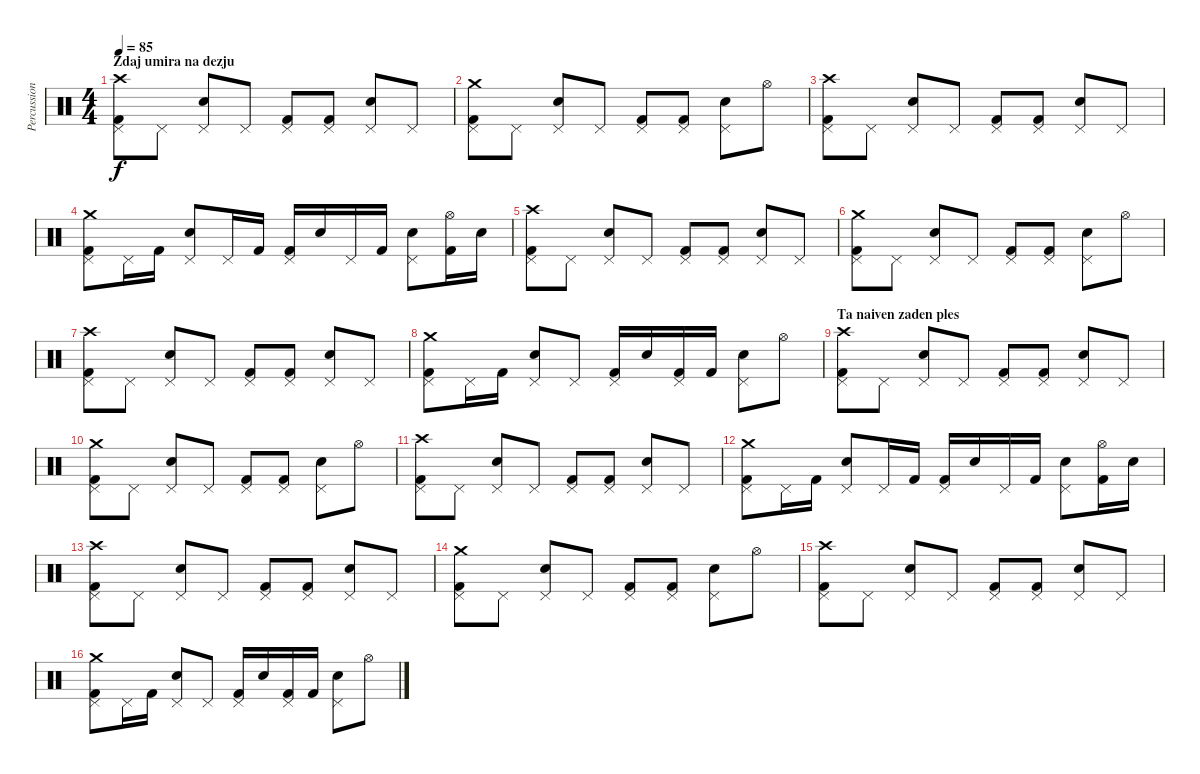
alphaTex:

\track ("Percussion" "Percussion") {instrument percussion}
\staff {score}
\articulation defaults
\ts (4 4)
\section ("" "Zdaj umira na dezju")
\tempo 85
\clef neutral
\ks c
("Crash high (hit)" "Pedal Hi-Hat (hit)" "Kick (hit) 2").8{dy f} "Pedal Hi-Hat (hit)".8 ("Pedal Hi-Hat (hit)" "Snare (hit) 2").8 "Pedal Hi-Hat (hit)".8 ("Pedal Hi-Hat (hit)" "Kick (hit) 2").8 ("Pedal Hi-Hat (hit)" "Kick (hit) 2").8 ("Pedal Hi-Hat (hit)" "Snare (hit) 2").8 "Pedal Hi-Hat (hit)".8 |
("Crash medium (hit)" "Pedal Hi-Hat (hit)" "Kick (hit) 2").8 "Pedal Hi-Hat (hit)".8 ("Pedal Hi-Hat (hit)" "Snare (hit) 2").8 "Pedal Hi-Hat (hit)".8 ("Pedal Hi-Hat (hit)" "Kick (hit) 2").8 ("Pedal Hi-Hat (hit)" "Kick (hit) 2").8 ("Pedal Hi-Hat (hit)" "Snare (hit) 2").8 "Hi-Hat (open)".8 |
("Crash high (hit)" "Pedal Hi-Hat (hit)" "Kick (hit) 2").8 "Pedal Hi-Hat (hit)".8 ("Pedal Hi-Hat (hit)" "Snare (hit) 2").8 "Pedal Hi-Hat (hit)".8 ("Pedal Hi-Hat (hit)" "Kick (hit) 2").8 ("Pedal Hi-Hat (hit)" "Kick (hit) 2").8 ("Pedal Hi-Hat (hit)" "Snare (hit) 2").8 "Pedal Hi-Hat (hit)".8 |
("Crash medium (hit)" "Pedal Hi-Hat (hit)" "Kick (hit) 2").8 "Pedal Hi-Hat (hit)".16 "Kick (hit) 2".16 ("Pedal Hi-Hat (hit)" "Snare (hit) 2").8 "Pedal Hi-Hat (hit)".16 "Kick (hit) 2".16 ("Pedal Hi-Hat (hit)" "Kick (hit) 2").16 "Snare (hit) 2".16 "Pedal Hi-Hat (hit)".16 "Kick (hit) 2".16 ("Pedal Hi-Hat (hit)" "Snare (hit) 2").8 ("Hi-Hat (open)" "Kick (hit) 2").16 "Snare (hit) 2".16 |
("Crash high (hit)" "Pedal Hi-Hat (hit)" "Kick (hit) 2").8 "Pedal Hi-Hat (hit)".8 ("Pedal Hi-Hat (hit)" "Snare (hit) 2").8 "Pedal Hi-Hat (hit)".8 ("Pedal Hi-Hat (hit)" "Kick (hit) 2").8 ("Pedal Hi-Hat (hit)" "Kick (hit) 2").8 ("Pedal Hi-Hat (hit)" "Snare (hit) 2").8 "Pedal Hi-Hat (hit)".8 |
("Crash medium (hit)" "Pedal Hi-Hat (hit)" "Kick (hit) 2").8 "Pedal Hi-Hat (hit)".8 ("Pedal Hi-Hat (hit)" "Snare (hit) 2").8 "Pedal Hi-Hat (hit)".8 ("Pedal Hi-Hat (hit)" "Kick (hit) 2").8 ("Pedal Hi-Hat (hit)" "Kick (hit) 2").8 ("Pedal Hi-Hat (hit)" "Snare (hit) 2").8 "Hi-Hat (open)".8 |
("Crash high (hit)" "Pedal Hi-Hat (hit)" "Kick (hit) 2").8 "Pedal Hi-Hat (hit)".8 ("Pedal Hi-Hat (hit)" "Snare (hit) 2").8 "Pedal Hi-Hat (hit)".8 ("Pedal Hi-Hat (hit)" "Kick (hit) 2").8 ("Pedal Hi-Hat (hit)" "Kick (hit) 2").8 ("Pedal Hi-Hat (hit)" "Snare (hit) 2").8 "Pedal Hi-Hat (hit)".8 |
("Crash medium (hit)" "Pedal Hi-Hat (hit)" "Kick (hit) 2").8 "Pedal Hi-Hat (hit)".16 "Kick (hit) 2".16 ("Pedal Hi-Hat (hit)" "Snare (hit) 2").8 "Pedal Hi-Hat (hit)".8 ("Pedal Hi-Hat (hit)" "Kick (hit) 2").16 "Snare (hit) 2".16 ("Pedal Hi-Hat (hit)" "Kick (hit) 2").16 "Kick (hit) 2".16 ("Pedal Hi-Hat (hit)" "Snare (hit) 2").8 "Hi-Hat (open)".8 |
\section ("" "Ta naiven zaden ples")
("Crash high (hit)" "Pedal Hi-Hat (hit)" "Kick (hit) 2").8 "Pedal Hi-Hat (hit)".8 ("Pedal Hi-Hat (hit)" "Snare (hit) 2").8 "Pedal Hi-Hat (hit)".8 ("Pedal Hi-Hat (hit)" "Kick (hit) 2").8 ("Pedal Hi-Hat (hit)" "Kick (hit) 2").8 ("Pedal Hi-Hat (hit)" "Snare (hit) 2").8 "Pedal Hi-Hat (hit)".8 |
("Crash medium (hit)" "Pedal Hi-Hat (hit)" "Kick (hit) 2").8 "Pedal Hi-Hat (hit)".8 ("Pedal Hi-Hat (hit)" "Snare (hit) 2").8 "Pedal Hi-Hat (hit)".8 ("Pedal Hi-Hat (hit)" "Kick (hit) 2").8 ("Pedal Hi-Hat (hit)" "Kick (hit) 2").8 ("Pedal Hi-Hat (hit)" "Snare (hit) 2").8 "Hi-Hat (open)".8 |
("Crash high (hit)" "Pedal Hi-Hat (hit)" "Kick (hit) 2").8 "Pedal Hi-Hat (hit)".8 ("Pedal Hi-Hat (hit)" "Snare (hit) 2").8 "Pedal Hi-Hat (hit)".8 ("Pedal Hi-Hat (hit)" "Kick (hit) 2").8 ("Pedal Hi-Hat (hit)" "Kick (hit) 2").8 ("Pedal Hi-Hat (hit)" "Snare (hit) 2").8 "Pedal Hi-Hat (hit)".8 |
("Crash medium (hit)" "Pedal Hi-Hat (hit)" "Kick (hit) 2").8 "Pedal Hi-Hat (hit)".16 "Kick (hit) 2".16 ("Pedal Hi-Hat (hit)" "Snare (hit) 2").8 "Pedal Hi-Hat (hit)".16 "Kick (hit) 2".16 ("Pedal Hi-Hat (hit)" "Kick (hit) 2").16 "Snare (hit) 2".16 "Pedal Hi-Hat (hit)".16 "Kick (hit) 2".16 ("Pedal Hi-Hat (hit)" "Snare (hit) 2").8 ("Hi-Hat (open)" "Kick (hit) 2").16 "Snare (hit) 2".16 |
("Crash high (hit)" "Pedal Hi-Hat (hit)" "Kick (hit) 2").8 "Pedal Hi-Hat (hit)".8 ("Pedal Hi-Hat (hit)" "Snare (hit) 2").8 "Pedal Hi-Hat (hit)".8 ("Pedal Hi-Hat (hit)" "Kick (hit) 2").8 ("Pedal Hi-Hat (hit)" "Kick (hit) 2").8 ("Pedal Hi-Hat (hit)" "Snare (hit) 2").8 "Pedal Hi-Hat (hit)".8 |
("Crash medium (hit)" "Pedal Hi-Hat (hit)" "Kick (hit) 2").8 "Pedal Hi-Hat (hit)".8 ("Pedal Hi-Hat (hit)" "Snare (hit) 2").8 "Pedal Hi-Hat (hit)".8 ("Pedal Hi-Hat (hit)" "Kick (hit) 2").8 ("Pedal Hi-Hat (hit)" "Kick (hit) 2").8 ("Pedal Hi-Hat (hit)" "Snare (hit) 2").8 "Hi-Hat (open)".8 |
("Crash high (hit)" "Pedal Hi-Hat (hit)" "Kick (hit) 2").8 "Pedal Hi-Hat (hit)".8 ("Pedal Hi-Hat (hit)" "Snare (hit) 2").8 "Pedal Hi-Hat (hit)".8 ("Pedal Hi-Hat (hit)" "Kick (hit) 2").8 ("Pedal Hi-Hat (hit)" "Kick (hit) 2").8 ("Pedal Hi-Hat (hit)" "Snare (hit) 2").8 "Pedal Hi-Hat (hit)".8 |
("Crash medium (hit)" "Pedal Hi-Hat (hit)" "Kick (hit) 2").8 "Pedal Hi-Hat (hit)".16 "Kick (hit) 2".16 ("Pedal Hi-Hat (hit)" "Snare (hit) 2").8 "Pedal Hi-Hat (hit)".8 ("Pedal Hi-Hat (hit)" "Kick (hit) 2").16 "Snare (hit) 2".16 ("Pedal Hi-Hat (hit)" "Kick (hit) 2").16 "Kick (hit) 2".16 ("Pedal Hi-Hat (hit)" "Snare (hit) 2").8 "Hi-Hat (open)".8
